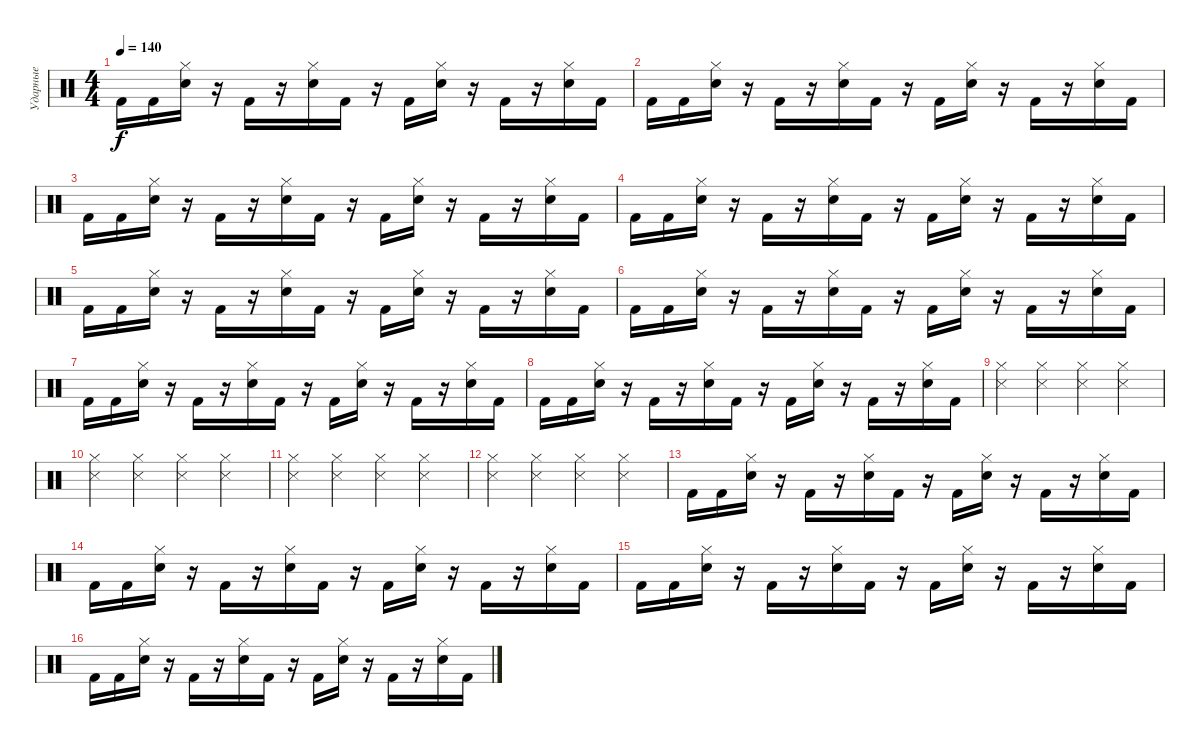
\track ("Ударные" "Ударные") {instrument percussion}
\staff {score}
\articulation defaults
\ts (4 4)
\tempo 140
\clef neutral
\ks c "Kick (hit) 2".16{dy f} "Kick (hit) 2".16
("Snare (hit) 2" "Hi-Hat (closed)").16 r.16 "Kick (hit) 2".16 r.16 ("Snare (hit) 2" "Hi-Hat (closed)").16 "Kick (hit) 2".16 r.16 "Kick (hit) 2".16 ("Snare (hit) 2" "Hi-Hat (closed)").16 r.16 "Kick (hit) 2".16 r.16 ("Snare (hit) 2" "Hi-Hat (closed)").16 "Kick (hit) 2".16 |
"Kick (hit) 2".16 "Kick (hit) 2".16 ("Snare (hit) 2" "Hi-Hat (closed)").16 r.16 "Kick (hit) 2".16 r.16 ("Snare (hit) 2" "Hi-Hat (closed)").16 "Kick (hit) 2".16 r.16 "Kick (hit) 2".16 ("Snare (hit) 2" "Hi-Hat (closed)").16 r.16 "Kick (hit) 2".16 r.16 ("Snare (hit) 2" "Hi-Hat (closed)").16 "Kick (hit) 2".16 |
"Kick (hit) 2".16 "Kick (hit) 2".16 ("Snare (hit) 2" "Hi-Hat (closed)").16 r.16 "Kick (hit) 2".16 r.16 ("Snare (hit) 2" "Hi-Hat (closed)").16 "Kick (hit) 2".16 r.16 "Kick (hit) 2".16 ("Snare (hit) 2" "Hi-Hat (closed)").16 r.16 "Kick (hit) 2".16 r.16 ("Snare (hit) 2" "Hi-Hat (closed)").16 "Kick (hit) 2".16 |
"Kick (hit) 2".16 "Kick (hit) 2".16 ("Snare (hit) 2" "Hi-Hat (closed)").16 r.16 "Kick (hit) 2".16 r.16 ("Snare (hit) 2" "Hi-Hat (closed)").16 "Kick (hit) 2".16 r.16 "Kick (hit) 2".16 ("Snare (hit) 2" "Hi-Hat (closed)").16 r.16 "Kick (hit) 2".16 r.16 ("Snare (hit) 2" "Hi-Hat (closed)").16 "Kick (hit) 2".16 |
"Kick (hit) 2".16 "Kick (hit) 2".16 ("Snare (hit) 2" "Hi-Hat (closed)").16 r.16 "Kick (hit) 2".16 r.16 ("Snare (hit) 2" "Hi-Hat (closed)").16 "Kick (hit) 2".16 r.16 "Kick (hit) 2".16 ("Snare (hit) 2" "Hi-Hat (closed)").16 r.16 "Kick (hit) 2".16 r.16 ("Snare (hit) 2" "Hi-Hat (closed)").16 "Kick (hit) 2".16 |
"Kick (hit) 2".16 "Kick (hit) 2".16 ("Snare (hit) 2" "Hi-Hat (closed)").16 r.16 "Kick (hit) 2".16 r.16 ("Snare (hit) 2" "Hi-Hat (closed)").16 "Kick (hit) 2".16 r.16 "Kick (hit) 2".16 ("Snare (hit) 2" "Hi-Hat (closed)").16 r.16 "Kick (hit) 2".16 r.16 ("Snare (hit) 2" "Hi-Hat (closed)").16 "Kick (hit) 2".16 |
"Kick (hit) 2".16 "Kick (hit) 2".16 ("Snare (hit) 2" "Hi-Hat (closed)").16 r.16 "Kick (hit) 2".16 r.16 ("Snare (hit) 2" "Hi-Hat (closed)").16 "Kick (hit) 2".16 r.16 "Kick (hit) 2".16 ("Snare (hit) 2" "Hi-Hat (closed)").16 r.16 "Kick (hit) 2".16 r.16 ("Snare (hit) 2" "Hi-Hat (closed)").16 "Kick (hit) 2".16 |
"Kick (hit) 2".16 "Kick (hit) 2".16 ("Snare (hit) 2" "Hi-Hat (closed)").16 r.16 "Kick (hit) 2".16 r.16 ("Snare (hit) 2" "Hi-Hat (closed)").16 "Kick (hit) 2".16 r.16 "Kick (hit) 2".16 ("Snare (hit) 2" "Hi-Hat (closed)").16 r.16 "Kick (hit) 2".16 r.16 ("Snare (hit) 2" "Hi-Hat (closed)").16 "Kick (hit) 2".16 |
("Hi-Hat (closed)" "Snare (side stick) 3").4 ("Hi-Hat (closed)" "Snare (side stick) 3").4 ("Hi-Hat (closed)" "Snare (side stick) 3").4 ("Hi-Hat (closed)" "Snare (side stick) 3").4 |
("Hi-Hat (closed)" "Snare (side stick) 3").4 ("Hi-Hat (closed)" "Snare (side stick) 3").4 ("Hi-Hat (closed)" "Snare (side stick) 3").4 ("Hi-Hat (closed)" "Snare (side stick) 3").4 |
("Hi-Hat (closed)" "Snare (side stick) 3").4 ("Hi-Hat (closed)" "Snare (side stick) 3").4 ("Hi-Hat (closed)" "Snare (side stick) 3").4 ("Hi-Hat (closed)" "Snare (side stick) 3").4 |
("Hi-Hat (closed)" "Snare (side stick) 3").4 ("Hi-Hat (closed)" "Snare (side stick) 3").4 ("Hi-Hat (closed)" "Snare (side stick) 3").4 ("Hi-Hat (closed)" "Snare (side stick) 3").4 |
"Kick (hit) 2".16 "Kick (hit) 2".16 ("Snare (hit) 2" "Hi-Hat (closed)").16 r.16 "Kick (hit) 2".16 r.16 ("Snare (hit) 2" "Hi-Hat (closed)").16 "Kick (hit) 2".16 r.16 "Kick (hit) 2".16 ("Snare (hit) 2" "Hi-Hat (closed)").16 r.16 "Kick (hit) 2".16 r.16 ("Snare (hit) 2" "Hi-Hat (closed)").16 "Kick (hit) 2".16 |
"Kick (hit) 2".16 "Kick (hit) 2".16 ("Snare (hit) 2" "Hi-Hat (closed)").16 r.16 "Kick (hit) 2".16 r.16 ("Snare (hit) 2" "Hi-Hat (closed)").16 "Kick (hit) 2".16 r.16 "Kick (hit) 2".16 ("Snare (hit) 2" "Hi-Hat (closed)").16 r.16 "Kick (hit) 2".16 r.16 ("Snare (hit) 2" "Hi-Hat (closed)").16 "Kick (hit) 2".16 |
"Kick (hit) 2".16 "Kick (hit) 2".16 ("Snare (hit) 2" "Hi-Hat (closed)").16 r.16 "Kick (hit) 2".16 r.16 ("Snare (hit) 2" "Hi-Hat (closed)").16 "Kick (hit) 2".16 r.16 "Kick (hit) 2".16 ("Snare (hit) 2" "Hi-Hat (closed)").16 r.16 "Kick (hit) 2".16 r.16 ("Snare (hit) 2" "Hi-Hat (closed)").16 "Kick (hit) 2".16 |
"Kick (hit) 2".16 "Kick (hit) 2".16 ("Snare (hit) 2" "Hi-Hat (closed)").16 r.16 "Kick (hit) 2".16 r.16 ("Snare (hit) 2" "Hi-Hat (closed)").16 "Kick (hit) 2".16 r.16 "Kick (hit) 2".16 ("Snare (hit) 2" "Hi-Hat (closed)").16 r.16 "Kick (hit) 2".16 r.16 ("Snare (hit) 2" "Hi-Hat (closed)").16 "Kick (hit) 2".16
